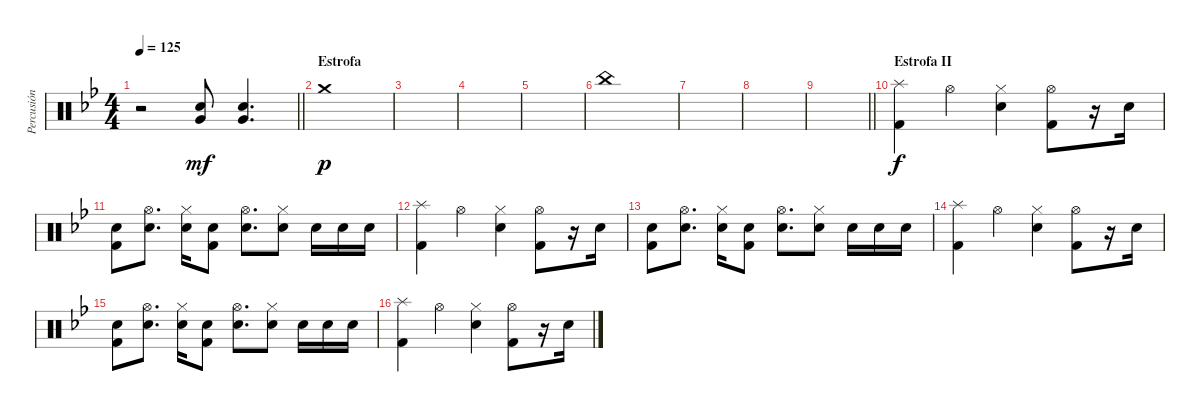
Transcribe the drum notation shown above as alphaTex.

\track ("Percusión" "Percusión") {instrument percussion}
\staff {score}
\articulation defaults
\ts (4 4)
\tempo 125
\clef neutral
\barLineRight lightlight
\ks gminor
r.2{dy mf} ("Snare (hit) 2" "Very Low Tom (hit)").8 ("Snare (hit) 2" "Very Low Tom (hit)").4{d} |
\section ("" "Estrofa")
"Crash medium (hit)".1{dy p} |
|
|
|
"China (hit)".1 |
|
|
\barLineRight lightlight
|
\section ("" "Estrofa II")
("Splash (hit)" "Kick (hit) 2").4{dy f} "Hi-Hat (open)".4 ("Hi-Hat (closed)" "Snare (hit) 2").4 ("Hi-Hat (open)" "Kick (hit) 2").8 r.16 "Snare (hit) 2".16 |
("Snare (hit) 2" "Kick (hit) 2").8 ("Hi-Hat (open)" "Snare (hit) 2").8{d} ("Hi-Hat (closed)" "Snare (hit) 2").16 ("Snare (hit) 2" "Kick (hit) 2").8 ("Hi-Hat (open)" "Snare (hit) 2").8{d} ("Hi-Hat (closed)" "Snare (hit) 2").8 "Snare (hit) 2".16 "Snare (hit) 2".16 "Snare (hit) 2".16 |
("Splash (hit)" "Kick (hit) 2").4 "Hi-Hat (open)".4 ("Hi-Hat (closed)" "Snare (hit) 2").4 ("Hi-Hat (open)" "Kick (hit) 2").8 r.16 "Snare (hit) 2".16 |
("Snare (hit) 2" "Kick (hit) 2").8 ("Hi-Hat (open)" "Snare (hit) 2").8{d} ("Hi-Hat (closed)" "Snare (hit) 2").16 ("Snare (hit) 2" "Kick (hit) 2").8 ("Hi-Hat (open)" "Snare (hit) 2").8{d} ("Hi-Hat (closed)" "Snare (hit) 2").8 "Snare (hit) 2".16 "Snare (hit) 2".16 "Snare (hit) 2".16 |
("Splash (hit)" "Kick (hit) 2").4 "Hi-Hat (open)".4 ("Hi-Hat (closed)" "Snare (hit) 2").4 ("Hi-Hat (open)" "Kick (hit) 2").8 r.16 "Snare (hit) 2".16 |
("Snare (hit) 2" "Kick (hit) 2").8 ("Hi-Hat (open)" "Snare (hit) 2").8{d} ("Hi-Hat (closed)" "Snare (hit) 2").16 ("Snare (hit) 2" "Kick (hit) 2").8 ("Hi-Hat (open)" "Snare (hit) 2").8{d} ("Hi-Hat (closed)" "Snare (hit) 2").8 "Snare (hit) 2".16 "Snare (hit) 2".16 "Snare (hit) 2".16 |
("Splash (hit)" "Kick (hit) 2").4 "Hi-Hat (open)".4 ("Hi-Hat (closed)" "Snare (hit) 2").4 ("Hi-Hat (open)" "Kick (hit) 2").8 r.16 "Snare (hit) 2".16
